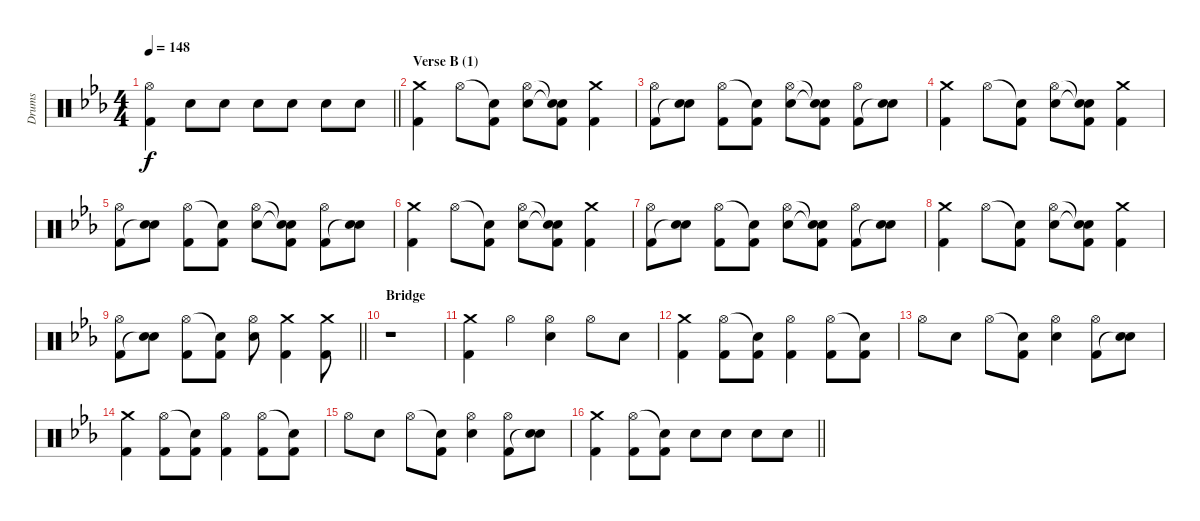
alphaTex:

\track ("Drums" "Drums") {instrument percussion}
\staff {score}
\articulation defaults
\ts (4 4)
\tempo 148
\clef neutral
\barLineRight lightlight
\ks eb
("Hi-Hat (open)" "Kick (hit) 2").4{dy f} "Electric Snare (hit)".8 "Electric Snare (hit)".8 "Electric Snare (hit)".8 "Electric Snare (hit)".8 "Electric Snare (hit)".8 "Electric Snare (hit)".8 |
\section ("" "Verse B (1)")
("Crash medium (hit)" "Kick (hit) 2").4 "Hi-Hat (open)".8 ("Snare (hit)"{t} "Kick (hit) 2").8 ("Hi-Hat (open)" "Electric Snare (hit)").8 ("Snare (hit)"{t} "Snare (hit)"{t} "Kick (hit) 2").8 ("Crash medium (hit)" "Kick (hit) 2").4 |
("Hi-Hat (open)" "Kick (hit) 2").8 ("Electric Snare (hit)" "Snare (hit)"{t}).8 ("Hi-Hat (open)" "Kick (hit) 2").8 ("Snare (hit)"{t} "Kick (hit) 2").8 ("Hi-Hat (open)" "Electric Snare (hit)").8 ("Snare (hit)"{t} "Snare (hit)"{t} "Kick (hit) 2").8 ("Hi-Hat (open)" "Kick (hit) 2").8 ("Electric Snare (hit)" "Snare (hit)"{t}).8 |
("Crash medium (hit)" "Kick (hit) 2").4 "Hi-Hat (open)".8 ("Snare (hit)"{t} "Kick (hit) 2").8 ("Hi-Hat (open)" "Electric Snare (hit)").8 ("Snare (hit)"{t} "Snare (hit)"{t} "Kick (hit) 2").8 ("Crash medium (hit)" "Kick (hit) 2").4 |
("Hi-Hat (open)" "Kick (hit) 2").8 ("Electric Snare (hit)" "Snare (hit)"{t}).8 ("Hi-Hat (open)" "Kick (hit) 2").8 ("Snare (hit)"{t} "Kick (hit) 2").8 ("Hi-Hat (open)" "Electric Snare (hit)").8 ("Snare (hit)"{t} "Snare (hit)"{t} "Kick (hit) 2").8 ("Hi-Hat (open)" "Kick (hit) 2").8 ("Electric Snare (hit)" "Snare (hit)"{t}).8 |
("Crash medium (hit)" "Kick (hit) 2").4 "Hi-Hat (open)".8 ("Snare (hit)"{t} "Kick (hit) 2").8 ("Hi-Hat (open)" "Electric Snare (hit)").8 ("Snare (hit)"{t} "Snare (hit)"{t} "Kick (hit) 2").8 ("Crash medium (hit)" "Kick (hit) 2").4 |
("Hi-Hat (open)" "Kick (hit) 2").8 ("Electric Snare (hit)" "Snare (hit)"{t}).8 ("Hi-Hat (open)" "Kick (hit) 2").8 ("Snare (hit)"{t} "Kick (hit) 2").8 ("Hi-Hat (open)" "Electric Snare (hit)").8 ("Snare (hit)"{t} "Snare (hit)"{t} "Kick (hit) 2").8 ("Hi-Hat (open)" "Kick (hit) 2").8 ("Electric Snare (hit)" "Snare (hit)"{t}).8 |
("Crash medium (hit)" "Kick (hit) 2").4 "Hi-Hat (open)".8 ("Snare (hit)"{t} "Kick (hit) 2").8 ("Hi-Hat (open)" "Electric Snare (hit)").8 ("Snare (hit)"{t} "Snare (hit)"{t} "Kick (hit) 2").8 ("Crash medium (hit)" "Kick (hit) 2").4 |
\barLineRight lightlight
("Hi-Hat (open)" "Kick (hit) 2").8 ("Electric Snare (hit)" "Snare (hit)"{t}).8 ("Hi-Hat (open)" "Kick (hit) 2").8 ("Snare (hit)"{t} "Kick (hit) 2").8 ("Hi-Hat (open)" "Electric Snare (hit)").8 ("Crash medium (hit)" "Kick (hit) 2").4 ("Crash medium (hit)" "Kick (hit) 2").8 |
\section ("" "Bridge")
r.1 |
("Crash medium (hit)" "Kick (hit) 2").4 "Hi-Hat (open)".4 ("Hi-Hat (open)" "Electric Snare (hit)").4 "Hi-Hat (open)".8 "Electric Snare (hit)".8 |
("Crash medium (hit)" "Kick (hit) 2").4 ("Hi-Hat (open)" "Kick (hit) 2").8 ("Snare (hit)"{t} "Kick (hit) 2").8 ("Hi-Hat (open)" "Kick (hit) 2").4 ("Hi-Hat (open)" "Kick (hit) 2").8 ("Snare (hit)"{t} "Kick (hit) 2").8 |
"Hi-Hat (open)".8 "Electric Snare (hit)".8 "Hi-Hat (open)".8 ("Snare (hit)"{t} "Kick (hit) 2").8 ("Hi-Hat (open)" "Electric Snare (hit)").4 ("Hi-Hat (open)" "Kick (hit) 2").8 ("Electric Snare (hit)" "Snare (hit)"{t}).8 |
("Crash medium (hit)" "Kick (hit) 2").4 ("Hi-Hat (open)" "Kick (hit) 2").8 ("Snare (hit)"{t} "Kick (hit) 2").8 ("Hi-Hat (open)" "Kick (hit) 2").4 ("Hi-Hat (open)" "Kick (hit) 2").8 ("Snare (hit)"{t} "Kick (hit) 2").8 |
"Hi-Hat (open)".8 "Electric Snare (hit)".8 "Hi-Hat (open)".8 ("Snare (hit)"{t} "Kick (hit) 2").8 ("Hi-Hat (open)" "Electric Snare (hit)").4 ("Hi-Hat (open)" "Kick (hit) 2").8 ("Electric Snare (hit)" "Snare (hit)"{t}).8 |
\barLineRight lightlight
("Crash medium (hit)" "Kick (hit) 2").4 ("Hi-Hat (open)" "Kick (hit) 2").8 ("Snare (hit)"{t} "Kick (hit) 2").8 "Electric Snare (hit)".8 "Electric Snare (hit)".8 "Electric Snare (hit)".8 "Electric Snare (hit)".8
